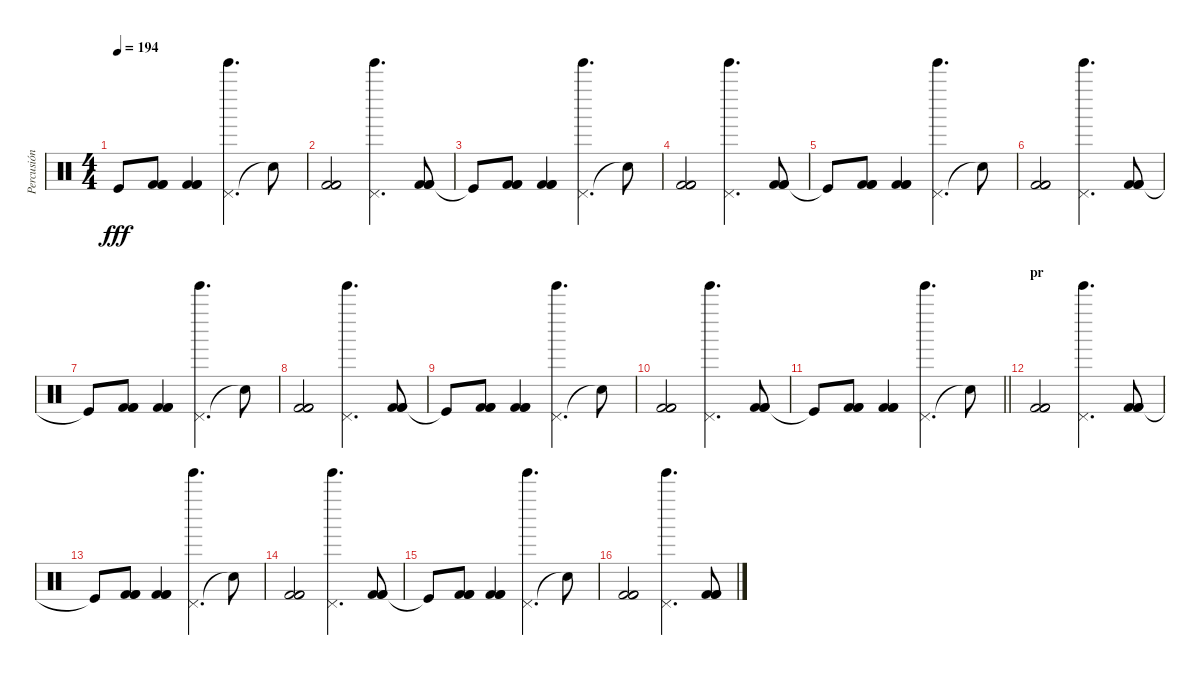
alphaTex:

\track ("Percusión" "Percusión") {instrument percussion}
\staff {score}
\articulation defaults
\ts (4 4)
\tempo 194
\clef neutral
\ks c "Kick (hit)"{t}.8{dy fff}
("Kick (hit) 2" "Kick (hit) 2" "Kick (hit) 2").8 ("Kick (hit) 2" "Kick (hit) 2" "Kick (hit) 2").4 ("Pedal Hi-Hat (hit)" "Tinkle Bell (hit)").4{d} "Snare (hit)"{t}.8 |
("Kick (hit) 2" "Kick (hit) 2" "Kick (hit) 2").2 ("Pedal Hi-Hat (hit)" "Tinkle Bell (hit)").4{d} ("Kick (hit) 2" "Kick (hit) 2" "Kick (hit) 2").8 |
"Kick (hit)"{t}.8 ("Kick (hit) 2" "Kick (hit) 2" "Kick (hit) 2").8 ("Kick (hit) 2" "Kick (hit) 2" "Kick (hit) 2").4 ("Pedal Hi-Hat (hit)" "Tinkle Bell (hit)").4{d} "Snare (hit)"{t}.8 |
("Kick (hit) 2" "Kick (hit) 2" "Kick (hit) 2").2 ("Pedal Hi-Hat (hit)" "Tinkle Bell (hit)").4{d} ("Kick (hit) 2" "Kick (hit) 2" "Kick (hit) 2").8 |
"Kick (hit)"{t}.8 ("Kick (hit) 2" "Kick (hit) 2" "Kick (hit) 2").8 ("Kick (hit) 2" "Kick (hit) 2" "Kick (hit) 2").4 ("Pedal Hi-Hat (hit)" "Tinkle Bell (hit)").4{d} "Snare (hit)"{t}.8 |
("Kick (hit) 2" "Kick (hit) 2" "Kick (hit) 2").2 ("Pedal Hi-Hat (hit)" "Tinkle Bell (hit)").4{d} ("Kick (hit) 2" "Kick (hit) 2" "Kick (hit) 2").8 |
"Kick (hit)"{t}.8 ("Kick (hit) 2" "Kick (hit) 2" "Kick (hit) 2").8 ("Kick (hit) 2" "Kick (hit) 2" "Kick (hit) 2").4 ("Pedal Hi-Hat (hit)" "Tinkle Bell (hit)").4{d} "Snare (hit)"{t}.8 |
("Kick (hit) 2" "Kick (hit) 2" "Kick (hit) 2").2 ("Pedal Hi-Hat (hit)" "Tinkle Bell (hit)").4{d} ("Kick (hit) 2" "Kick (hit) 2" "Kick (hit) 2").8 |
"Kick (hit)"{t}.8 ("Kick (hit) 2" "Kick (hit) 2" "Kick (hit) 2").8 ("Kick (hit) 2" "Kick (hit) 2" "Kick (hit) 2").4 ("Pedal Hi-Hat (hit)" "Tinkle Bell (hit)").4{d} "Snare (hit)"{t}.8 |
("Kick (hit) 2" "Kick (hit) 2" "Kick (hit) 2").2 ("Pedal Hi-Hat (hit)" "Tinkle Bell (hit)").4{d} ("Kick (hit) 2" "Kick (hit) 2" "Kick (hit) 2").8 |
\barLineRight lightlight "Kick (hit)"{t}.8
("Kick (hit) 2" "Kick (hit) 2" "Kick (hit) 2").8 ("Kick (hit) 2" "Kick (hit) 2" "Kick (hit) 2").4 ("Pedal Hi-Hat (hit)" "Tinkle Bell (hit)").4{d} "Snare (hit)"{t}.8 |
\section ("" "pr")
("Kick (hit) 2" "Kick (hit) 2" "Kick (hit) 2").2 ("Pedal Hi-Hat (hit)" "Tinkle Bell (hit)").4{d} ("Kick (hit) 2" "Kick (hit) 2" "Kick (hit) 2").8 |
"Kick (hit)"{t}.8 ("Kick (hit) 2" "Kick (hit) 2" "Kick (hit) 2").8 ("Kick (hit) 2" "Kick (hit) 2" "Kick (hit) 2").4 ("Pedal Hi-Hat (hit)" "Tinkle Bell (hit)").4{d} "Snare (hit)"{t}.8 |
("Kick (hit) 2" "Kick (hit) 2" "Kick (hit) 2").2 ("Pedal Hi-Hat (hit)" "Tinkle Bell (hit)").4{d} ("Kick (hit) 2" "Kick (hit) 2" "Kick (hit) 2").8 |
"Kick (hit)"{t}.8 ("Kick (hit) 2" "Kick (hit) 2" "Kick (hit) 2").8 ("Kick (hit) 2" "Kick (hit) 2" "Kick (hit) 2").4 ("Pedal Hi-Hat (hit)" "Tinkle Bell (hit)").4{d} "Snare (hit)"{t}.8 |
("Kick (hit) 2" "Kick (hit) 2" "Kick (hit) 2").2 ("Pedal Hi-Hat (hit)" "Tinkle Bell (hit)").4{d} ("Kick (hit) 2" "Kick (hit) 2" "Kick (hit) 2").8
